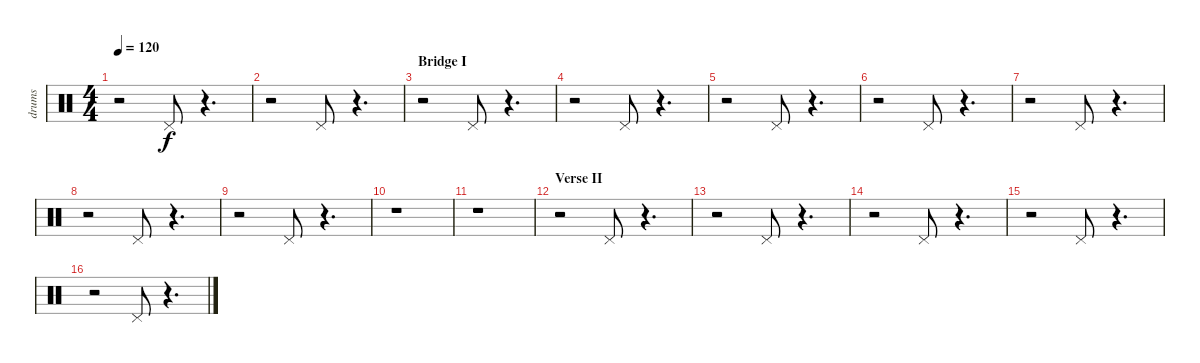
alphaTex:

\track ("drums" "drums") {instrument percussion}
\staff {score}
\articulation defaults
\ts (4 4)
\tempo 120
\clef neutral
\ks c
r.2{dy f} "Pedal Hi-Hat (hit)".8 r.4{d} |
r.2 "Pedal Hi-Hat (hit)".8 r.4{d} |
\section ("" "Bridge I")
r.2 "Pedal Hi-Hat (hit)".8 r.4{d} |
r.2 "Pedal Hi-Hat (hit)".8 r.4{d} |
r.2 "Pedal Hi-Hat (hit)".8 r.4{d} |
r.2 "Pedal Hi-Hat (hit)".8 r.4{d} |
r.2 "Pedal Hi-Hat (hit)".8 r.4{d} |
r.2 "Pedal Hi-Hat (hit)".8 r.4{d} |
r.2 "Pedal Hi-Hat (hit)".8 r.4{d} |
r.1 |
r.1 |
\section ("" "Verse II")
r.2 "Pedal Hi-Hat (hit)".8 r.4{d} |
r.2 "Pedal Hi-Hat (hit)".8 r.4{d} |
r.2 "Pedal Hi-Hat (hit)".8 r.4{d} |
r.2 "Pedal Hi-Hat (hit)".8 r.4{d} |
r.2 "Pedal Hi-Hat (hit)".8 r.4{d}
